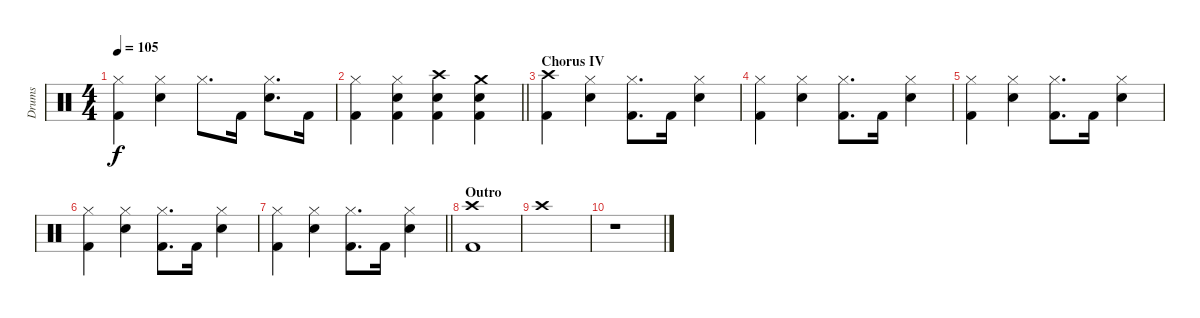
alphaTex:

\track ("Drums" "Drums") {instrument percussion}
\staff {score}
\articulation defaults
\ts (4 4)
\tempo 105
\clef neutral
\ks c
("Hi-Hat (closed)" "Kick (hit) 2").4{dy f} ("Hi-Hat (closed)" "Snare (hit) 2").4 "Hi-Hat (closed)".8{d} "Kick (hit) 2".16 ("Hi-Hat (closed)" "Snare (hit) 2").8{d} "Kick (hit) 2".16 |
\barLineRight lightlight
("Hi-Hat (closed)" "Kick (hit) 2").4 ("Hi-Hat (closed)" "Snare (hit) 2" "Kick (hit) 2").4 ("Crash high (hit)" "Snare (hit) 2" "Kick (hit) 2").4 ("Crash medium (hit)" "Snare (hit) 2" "Kick (hit) 2").4 |
\section ("" "Chorus IV")
("Crash high (hit)" "Kick (hit) 2").4 ("Hi-Hat (closed)" "Snare (hit) 2").4 ("Hi-Hat (closed)" "Kick (hit) 2").8{d} "Kick (hit) 2".16 ("Hi-Hat (closed)" "Snare (hit) 2").4 |
("Hi-Hat (closed)" "Kick (hit) 2").4 ("Hi-Hat (closed)" "Snare (hit) 2").4 ("Hi-Hat (closed)" "Kick (hit) 2").8{d} "Kick (hit) 2".16 ("Hi-Hat (closed)" "Snare (hit) 2").4 |
("Hi-Hat (closed)" "Kick (hit) 2").4 ("Hi-Hat (closed)" "Snare (hit) 2").4 ("Hi-Hat (closed)" "Kick (hit) 2").8{d} "Kick (hit) 2".16 ("Hi-Hat (closed)" "Snare (hit) 2").4 |
("Hi-Hat (closed)" "Kick (hit) 2").4 ("Hi-Hat (closed)" "Snare (hit) 2").4 ("Hi-Hat (closed)" "Kick (hit) 2").8{d} "Kick (hit) 2".16 ("Hi-Hat (closed)" "Snare (hit) 2").4 |
\barLineRight lightlight
("Hi-Hat (closed)" "Kick (hit) 2").4 ("Hi-Hat (closed)" "Snare (hit) 2").4 ("Hi-Hat (closed)" "Kick (hit) 2").8{d} "Kick (hit) 2".16 ("Hi-Hat (closed)" "Snare (hit) 2").4 |
\section ("" "Outro")
("Crash high (hit)" "Kick (hit) 2").1 |
"Crash high (hit)".1 |
r.1
